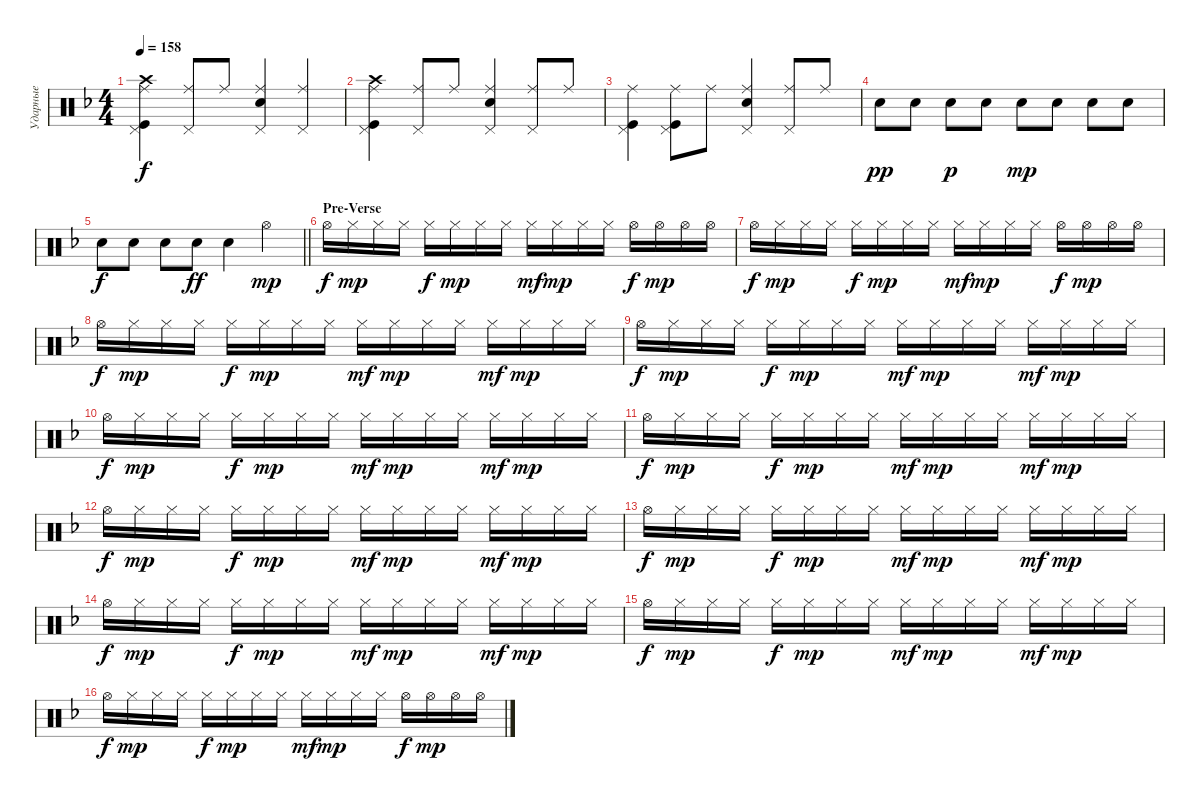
\track ("Ударные" "Ударные") {instrument percussion}
\staff {score}
\articulation defaults
\ts (4 4)
\tempo 158
\clef neutral
\ks dminor
("Crash high (hit)" "Kick (hit)" "Pedal Hi-Hat (hit)" "Ride (middle)").4{dy f} ("Ride (middle)" "Pedal Hi-Hat (hit)").8 "Ride (middle)".8 ("Ride (middle)" "Snare (hit) 2" "Pedal Hi-Hat (hit)").4 ("Ride (middle)" "Pedal Hi-Hat (hit)").4 |
("Crash high (hit)" "Kick (hit)" "Pedal Hi-Hat (hit)" "Ride (middle)").4 ("Ride (middle)" "Pedal Hi-Hat (hit)").8 "Ride (middle)".8 ("Ride (middle)" "Snare (hit) 2" "Pedal Hi-Hat (hit)").4 ("Ride (middle)" "Pedal Hi-Hat (hit)").8 "Ride (middle)".8 |
("Ride (middle)" "Kick (hit)" "Pedal Hi-Hat (hit)").4 ("Ride (middle)" "Kick (hit)" "Pedal Hi-Hat (hit)").8 "Ride (middle)".8 ("Ride (middle)" "Snare (hit) 2" "Pedal Hi-Hat (hit)").4 ("Ride (middle)" "Pedal Hi-Hat (hit)").8 "Ride (middle)".8 |
"Snare (hit) 2".8{dy pp} "Snare (hit) 2".8 "Snare (hit) 2".8{dy p} "Snare (hit) 2".8 "Snare (hit) 2".8{dy mp} "Snare (hit) 2".8 "Snare (hit) 2".8 "Snare (hit) 2".8 |
\barLineRight lightlight "Snare (hit) 2".8{dy f} "Snare (hit) 2".8 "Snare (hit) 2".8 "Snare (hit) 2".8{dy ff} "Snare (hit) 2".4 "Hi-Hat (open)".4{dy mp}
|
\section ("" "Pre-Verse")
"Hi-Hat (open)".16{dy f} "Hi-Hat (closed)".16{dy mp} "Hi-Hat (closed)".16 "Hi-Hat (closed)".16 "Hi-Hat (closed)".16{dy f} "Hi-Hat (closed)".16{dy mp} "Hi-Hat (closed)".16 "Hi-Hat (closed)".16 "Hi-Hat (closed)".16{dy mf} "Hi-Hat (closed)".16{dy mp} "Hi-Hat (closed)".16 "Hi-Hat (closed)".16 "Hi-Hat (open)".16{dy f} "Hi-Hat (open)".16{dy mp} "Hi-Hat (open)".16 "Hi-Hat (open)".16 |
"Hi-Hat (open)".16{dy f} "Hi-Hat (closed)".16{dy mp} "Hi-Hat (closed)".16 "Hi-Hat (closed)".16 "Hi-Hat (closed)".16{dy f} "Hi-Hat (closed)".16{dy mp} "Hi-Hat (closed)".16 "Hi-Hat (closed)".16 "Hi-Hat (closed)".16{dy mf} "Hi-Hat (closed)".16{dy mp} "Hi-Hat (closed)".16 "Hi-Hat (closed)".16 "Hi-Hat (open)".16{dy f} "Hi-Hat (open)".16{dy mp} "Hi-Hat (open)".16 "Hi-Hat (open)".16 |
"Hi-Hat (open)".16{dy f} "Hi-Hat (closed)".16{dy mp} "Hi-Hat (closed)".16 "Hi-Hat (closed)".16 "Hi-Hat (closed)".16{dy f} "Hi-Hat (closed)".16{dy mp} "Hi-Hat (closed)".16 "Hi-Hat (closed)".16 "Hi-Hat (closed)".16{dy mf} "Hi-Hat (closed)".16{dy mp} "Hi-Hat (closed)".16 "Hi-Hat (closed)".16 "Hi-Hat (closed)".16{dy mf} "Hi-Hat (closed)".16{dy mp} "Hi-Hat (closed)".16 "Hi-Hat (closed)".16 |
"Hi-Hat (open)".16{dy f} "Hi-Hat (closed)".16{dy mp} "Hi-Hat (closed)".16 "Hi-Hat (closed)".16 "Hi-Hat (closed)".16{dy f} "Hi-Hat (closed)".16{dy mp} "Hi-Hat (closed)".16 "Hi-Hat (closed)".16 "Hi-Hat (closed)".16{dy mf} "Hi-Hat (closed)".16{dy mp} "Hi-Hat (closed)".16 "Hi-Hat (closed)".16 "Hi-Hat (closed)".16{dy mf} "Hi-Hat (closed)".16{dy mp} "Hi-Hat (closed)".16 "Hi-Hat (closed)".16 |
"Hi-Hat (open)".16{dy f} "Hi-Hat (closed)".16{dy mp} "Hi-Hat (closed)".16 "Hi-Hat (closed)".16 "Hi-Hat (closed)".16{dy f} "Hi-Hat (closed)".16{dy mp} "Hi-Hat (closed)".16 "Hi-Hat (closed)".16 "Hi-Hat (closed)".16{dy mf} "Hi-Hat (closed)".16{dy mp} "Hi-Hat (closed)".16 "Hi-Hat (closed)".16 "Hi-Hat (closed)".16{dy mf} "Hi-Hat (closed)".16{dy mp} "Hi-Hat (closed)".16 "Hi-Hat (closed)".16 |
"Hi-Hat (open)".16{dy f} "Hi-Hat (closed)".16{dy mp} "Hi-Hat (closed)".16 "Hi-Hat (closed)".16 "Hi-Hat (closed)".16{dy f} "Hi-Hat (closed)".16{dy mp} "Hi-Hat (closed)".16 "Hi-Hat (closed)".16 "Hi-Hat (closed)".16{dy mf} "Hi-Hat (closed)".16{dy mp} "Hi-Hat (closed)".16 "Hi-Hat (closed)".16 "Hi-Hat (closed)".16{dy mf} "Hi-Hat (closed)".16{dy mp} "Hi-Hat (closed)".16 "Hi-Hat (closed)".16 |
"Hi-Hat (open)".16{dy f} "Hi-Hat (closed)".16{dy mp} "Hi-Hat (closed)".16 "Hi-Hat (closed)".16 "Hi-Hat (closed)".16{dy f} "Hi-Hat (closed)".16{dy mp} "Hi-Hat (closed)".16 "Hi-Hat (closed)".16 "Hi-Hat (closed)".16{dy mf} "Hi-Hat (closed)".16{dy mp} "Hi-Hat (closed)".16 "Hi-Hat (closed)".16 "Hi-Hat (closed)".16{dy mf} "Hi-Hat (closed)".16{dy mp} "Hi-Hat (closed)".16 "Hi-Hat (closed)".16 |
"Hi-Hat (open)".16{dy f} "Hi-Hat (closed)".16{dy mp} "Hi-Hat (closed)".16 "Hi-Hat (closed)".16 "Hi-Hat (closed)".16{dy f} "Hi-Hat (closed)".16{dy mp} "Hi-Hat (closed)".16 "Hi-Hat (closed)".16 "Hi-Hat (closed)".16{dy mf} "Hi-Hat (closed)".16{dy mp} "Hi-Hat (closed)".16 "Hi-Hat (closed)".16 "Hi-Hat (closed)".16{dy mf} "Hi-Hat (closed)".16{dy mp} "Hi-Hat (closed)".16 "Hi-Hat (closed)".16 |
"Hi-Hat (open)".16{dy f} "Hi-Hat (closed)".16{dy mp} "Hi-Hat (closed)".16 "Hi-Hat (closed)".16 "Hi-Hat (closed)".16{dy f} "Hi-Hat (closed)".16{dy mp} "Hi-Hat (closed)".16 "Hi-Hat (closed)".16 "Hi-Hat (closed)".16{dy mf} "Hi-Hat (closed)".16{dy mp} "Hi-Hat (closed)".16 "Hi-Hat (closed)".16 "Hi-Hat (closed)".16{dy mf} "Hi-Hat (closed)".16{dy mp} "Hi-Hat (closed)".16 "Hi-Hat (closed)".16 |
"Hi-Hat (open)".16{dy f} "Hi-Hat (closed)".16{dy mp} "Hi-Hat (closed)".16 "Hi-Hat (closed)".16 "Hi-Hat (closed)".16{dy f} "Hi-Hat (closed)".16{dy mp} "Hi-Hat (closed)".16 "Hi-Hat (closed)".16 "Hi-Hat (closed)".16{dy mf} "Hi-Hat (closed)".16{dy mp} "Hi-Hat (closed)".16 "Hi-Hat (closed)".16 "Hi-Hat (closed)".16{dy mf} "Hi-Hat (closed)".16{dy mp} "Hi-Hat (closed)".16 "Hi-Hat (closed)".16 |
"Hi-Hat (open)".16{dy f} "Hi-Hat (closed)".16{dy mp} "Hi-Hat (closed)".16 "Hi-Hat (closed)".16 "Hi-Hat (closed)".16{dy f} "Hi-Hat (closed)".16{dy mp} "Hi-Hat (closed)".16 "Hi-Hat (closed)".16 "Hi-Hat (closed)".16{dy mf} "Hi-Hat (closed)".16{dy mp} "Hi-Hat (closed)".16 "Hi-Hat (closed)".16 "Hi-Hat (open)".16{dy f} "Hi-Hat (open)".16{dy mp} "Hi-Hat (open)".16 "Hi-Hat (open)".16
